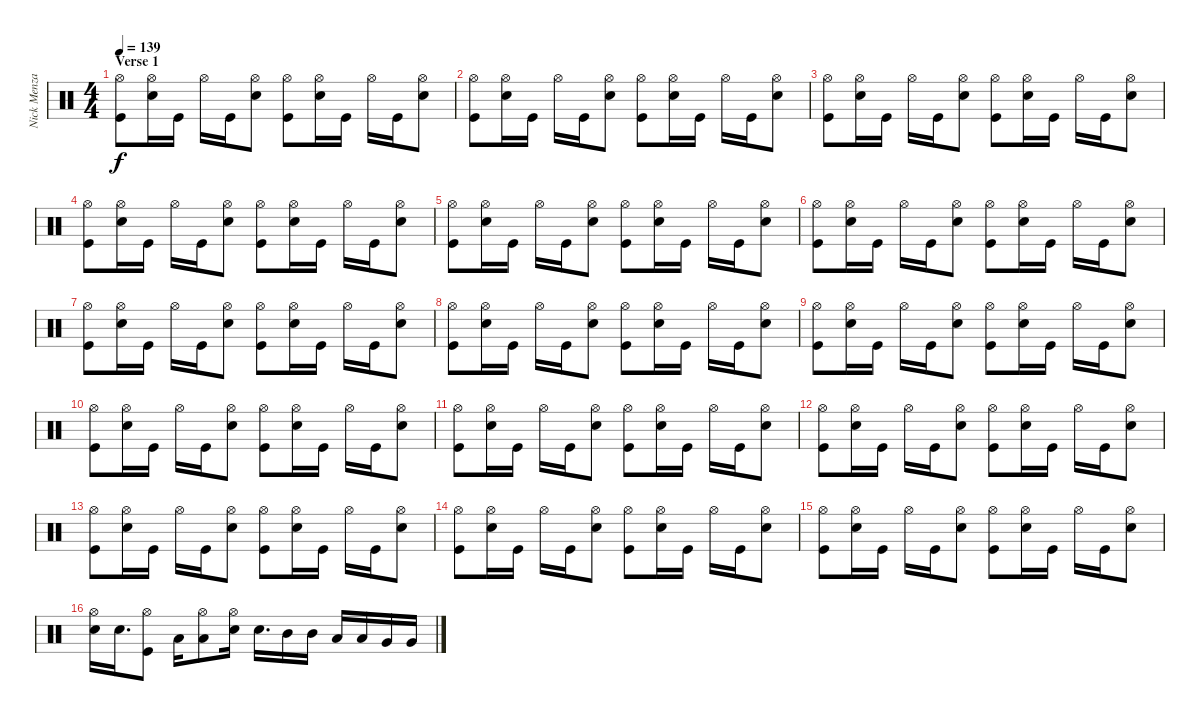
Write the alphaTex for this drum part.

\track ("Nick Menza" "Nick Menza") {instrument percussion}
\staff {score}
\articulation defaults
\ts (4 4)
\section ("" "Verse 1")
\tempo 139
\clef neutral
\ks c
("Hi-Hat (open)" "Kick (hit)").8{dy f} ("Hi-Hat (open)" "Snare (hit) 2").16 "Kick (hit)".16 "Hi-Hat (open)".16 "Kick (hit)".16 ("Hi-Hat (open)" "Snare (hit) 2").8 ("Hi-Hat (open)" "Kick (hit)").8 ("Hi-Hat (open)" "Snare (hit) 2").16 "Kick (hit)".16 "Hi-Hat (open)".16 "Kick (hit)".16 ("Hi-Hat (open)" "Snare (hit) 2").8 |
("Hi-Hat (open)" "Kick (hit)").8 ("Hi-Hat (open)" "Snare (hit) 2").16 "Kick (hit)".16 "Hi-Hat (open)".16 "Kick (hit)".16 ("Hi-Hat (open)" "Snare (hit) 2").8 ("Hi-Hat (open)" "Kick (hit)").8 ("Hi-Hat (open)" "Snare (hit) 2").16 "Kick (hit)".16 "Hi-Hat (open)".16 "Kick (hit)".16 ("Hi-Hat (open)" "Snare (hit) 2").8 |
("Hi-Hat (open)" "Kick (hit)").8 ("Hi-Hat (open)" "Snare (hit) 2").16 "Kick (hit)".16 "Hi-Hat (open)".16 "Kick (hit)".16 ("Hi-Hat (open)" "Snare (hit) 2").8 ("Hi-Hat (open)" "Kick (hit)").8 ("Hi-Hat (open)" "Snare (hit) 2").16 "Kick (hit)".16 "Hi-Hat (open)".16 "Kick (hit)".16 ("Hi-Hat (open)" "Snare (hit) 2").8 |
("Hi-Hat (open)" "Kick (hit)").8 ("Hi-Hat (open)" "Snare (hit) 2").16 "Kick (hit)".16 "Hi-Hat (open)".16 "Kick (hit)".16 ("Hi-Hat (open)" "Snare (hit) 2").8 ("Hi-Hat (open)" "Kick (hit)").8 ("Hi-Hat (open)" "Snare (hit) 2").16 "Kick (hit)".16 "Hi-Hat (open)".16 "Kick (hit)".16 ("Hi-Hat (open)" "Snare (hit) 2").8 |
("Hi-Hat (open)" "Kick (hit)").8 ("Hi-Hat (open)" "Snare (hit) 2").16 "Kick (hit)".16 "Hi-Hat (open)".16 "Kick (hit)".16 ("Hi-Hat (open)" "Snare (hit) 2").8 ("Hi-Hat (open)" "Kick (hit)").8 ("Hi-Hat (open)" "Snare (hit) 2").16 "Kick (hit)".16 "Hi-Hat (open)".16 "Kick (hit)".16 ("Hi-Hat (open)" "Snare (hit) 2").8 |
("Hi-Hat (open)" "Kick (hit)").8 ("Hi-Hat (open)" "Snare (hit) 2").16 "Kick (hit)".16 "Hi-Hat (open)".16 "Kick (hit)".16 ("Hi-Hat (open)" "Snare (hit) 2").8 ("Hi-Hat (open)" "Kick (hit)").8 ("Hi-Hat (open)" "Snare (hit) 2").16 "Kick (hit)".16 "Hi-Hat (open)".16 "Kick (hit)".16 ("Hi-Hat (open)" "Snare (hit) 2").8 |
("Hi-Hat (open)" "Kick (hit)").8 ("Hi-Hat (open)" "Snare (hit) 2").16 "Kick (hit)".16 "Hi-Hat (open)".16 "Kick (hit)".16 ("Hi-Hat (open)" "Snare (hit) 2").8 ("Hi-Hat (open)" "Kick (hit)").8 ("Hi-Hat (open)" "Snare (hit) 2").16 "Kick (hit)".16 "Hi-Hat (open)".16 "Kick (hit)".16 ("Hi-Hat (open)" "Snare (hit) 2").8 |
("Hi-Hat (open)" "Kick (hit)").8 ("Hi-Hat (open)" "Snare (hit) 2").16 "Kick (hit)".16 "Hi-Hat (open)".16 "Kick (hit)".16 ("Hi-Hat (open)" "Snare (hit) 2").8 ("Hi-Hat (open)" "Kick (hit)").8 ("Hi-Hat (open)" "Snare (hit) 2").16 "Kick (hit)".16 "Hi-Hat (open)".16 "Kick (hit)".16 ("Hi-Hat (open)" "Snare (hit) 2").8 |
("Hi-Hat (open)" "Kick (hit)").8 ("Hi-Hat (open)" "Snare (hit) 2").16 "Kick (hit)".16 "Hi-Hat (open)".16 "Kick (hit)".16 ("Hi-Hat (open)" "Snare (hit) 2").8 ("Hi-Hat (open)" "Kick (hit)").8 ("Hi-Hat (open)" "Snare (hit) 2").16 "Kick (hit)".16 "Hi-Hat (open)".16 "Kick (hit)".16 ("Hi-Hat (open)" "Snare (hit) 2").8 |
("Hi-Hat (open)" "Kick (hit)").8 ("Hi-Hat (open)" "Snare (hit) 2").16 "Kick (hit)".16 "Hi-Hat (open)".16 "Kick (hit)".16 ("Hi-Hat (open)" "Snare (hit) 2").8 ("Hi-Hat (open)" "Kick (hit)").8 ("Hi-Hat (open)" "Snare (hit) 2").16 "Kick (hit)".16 "Hi-Hat (open)".16 "Kick (hit)".16 ("Hi-Hat (open)" "Snare (hit) 2").8 |
("Hi-Hat (open)" "Kick (hit)").8 ("Hi-Hat (open)" "Snare (hit) 2").16 "Kick (hit)".16 "Hi-Hat (open)".16 "Kick (hit)".16 ("Hi-Hat (open)" "Snare (hit) 2").8 ("Hi-Hat (open)" "Kick (hit)").8 ("Hi-Hat (open)" "Snare (hit) 2").16 "Kick (hit)".16 "Hi-Hat (open)".16 "Kick (hit)".16 ("Hi-Hat (open)" "Snare (hit) 2").8 |
("Hi-Hat (open)" "Kick (hit)").8 ("Hi-Hat (open)" "Snare (hit) 2").16 "Kick (hit)".16 "Hi-Hat (open)".16 "Kick (hit)".16 ("Hi-Hat (open)" "Snare (hit) 2").8 ("Hi-Hat (open)" "Kick (hit)").8 ("Hi-Hat (open)" "Snare (hit) 2").16 "Kick (hit)".16 "Hi-Hat (open)".16 "Kick (hit)".16 ("Hi-Hat (open)" "Snare (hit) 2").8 |
("Hi-Hat (open)" "Kick (hit)").8 ("Hi-Hat (open)" "Snare (hit) 2").16 "Kick (hit)".16 "Hi-Hat (open)".16 "Kick (hit)".16 ("Hi-Hat (open)" "Snare (hit) 2").8 ("Hi-Hat (open)" "Kick (hit)").8 ("Hi-Hat (open)" "Snare (hit) 2").16 "Kick (hit)".16 "Hi-Hat (open)".16 "Kick (hit)".16 ("Hi-Hat (open)" "Snare (hit) 2").8 |
("Hi-Hat (open)" "Kick (hit)").8 ("Hi-Hat (open)" "Snare (hit) 2").16 "Kick (hit)".16 "Hi-Hat (open)".16 "Kick (hit)".16 ("Hi-Hat (open)" "Snare (hit) 2").8 ("Hi-Hat (open)" "Kick (hit)").8 ("Hi-Hat (open)" "Snare (hit) 2").16 "Kick (hit)".16 "Hi-Hat (open)".16 "Kick (hit)".16 ("Hi-Hat (open)" "Snare (hit) 2").8 |
("Hi-Hat (open)" "Kick (hit)").8 ("Hi-Hat (open)" "Snare (hit) 2").16 "Kick (hit)".16 "Hi-Hat (open)".16 "Kick (hit)".16 ("Hi-Hat (open)" "Snare (hit) 2").8 ("Hi-Hat (open)" "Kick (hit)").8 ("Hi-Hat (open)" "Snare (hit) 2").16 "Kick (hit)".16 "Hi-Hat (open)".16 "Kick (hit)".16 ("Hi-Hat (open)" "Snare (hit) 2").8 |
("Hi-Hat (open)" "Snare (hit) 2").16 "Snare (hit) 2".16{d} ("Hi-Hat (open)" "Kick (hit)").8 "Low Floor Tom (hit)".16 ("Hi-Hat (open)" "Low Floor Tom (hit)").8 ("Hi-Hat (open)" "Snare (hit) 2").16 "Snare (hit) 2".16{d} "Mid Tom (hit)".16 "Mid Tom (hit)".16 "Low Tom (hit)".16 "Low Tom (hit)".16 "Very Low Tom (hit)".16 "Very Low Tom (hit)".16
